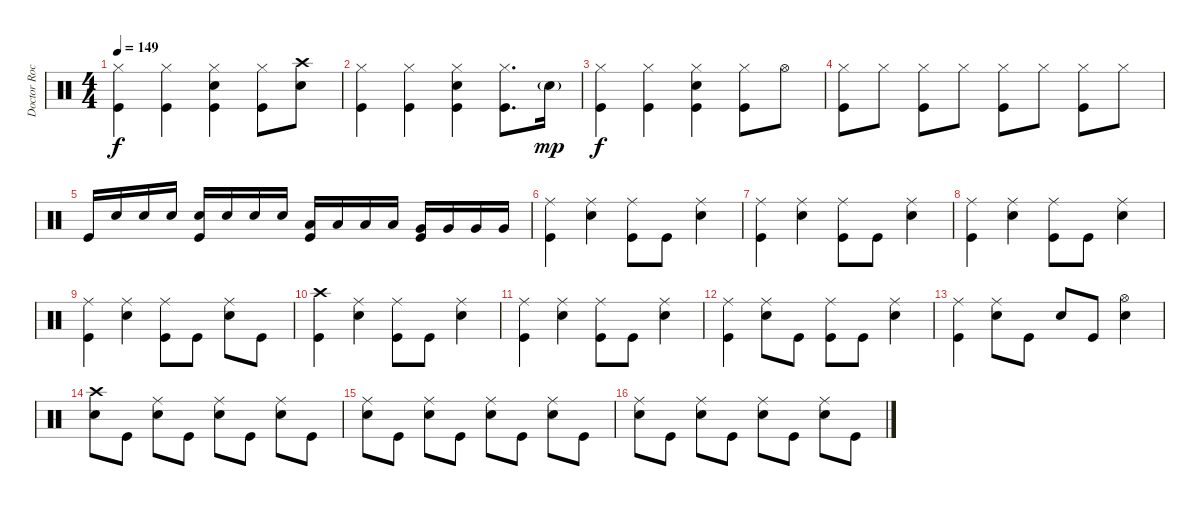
\track ("Doctor Rock" "Doctor Roc") {instrument percussion}
\staff {score}
\articulation defaults
\ts (4 4)
\tempo 149
\clef neutral
\ks c
("Hi-Hat (closed)" "Kick (hit)").4{dy f} ("Hi-Hat (closed)" "Kick (hit)").4 ("Hi-Hat (closed)" "Snare (hit) 2" "Kick (hit)").4 ("Hi-Hat (closed)" "Kick (hit)").8 ("Crash high (hit)" "Snare (hit) 2").8 |
("Hi-Hat (closed)" "Kick (hit)").4 ("Hi-Hat (closed)" "Kick (hit)").4 ("Hi-Hat (closed)" "Snare (hit) 2" "Kick (hit)").4 ("Hi-Hat (closed)" "Kick (hit)").8{d} "Snare (hit) 2"{g}.16{dy mp} |
("Hi-Hat (closed)" "Kick (hit)").4{dy f} ("Hi-Hat (closed)" "Kick (hit)").4 ("Hi-Hat (closed)" "Snare (hit) 2" "Kick (hit)").4 ("Hi-Hat (closed)" "Kick (hit)").8 "Hi-Hat (open)".8 |
("Hi-Hat (closed)" "Kick (hit)").8 "Hi-Hat (closed)".8 ("Hi-Hat (closed)" "Kick (hit)").8 "Hi-Hat (closed)".8 ("Hi-Hat (closed)" "Kick (hit)").8 "Hi-Hat (closed)".8 ("Hi-Hat (closed)" "Kick (hit)").8 "Hi-Hat (closed)".8 |
"Kick (hit)".16 "Snare (hit) 2".16 "Snare (hit) 2".16 "Snare (hit) 2".16 ("Snare (hit) 2" "Kick (hit)").16 "Snare (hit) 2".16 "Snare (hit) 2".16 "Snare (hit) 2".16 ("Kick (hit)" "Low Tom (hit)").16 "Low Tom (hit)".16 "Low Tom (hit)".16 "Low Tom (hit)".16 ("Kick (hit)" "Very Low Tom (hit)").16 "Very Low Tom (hit)".16 "Very Low Tom (hit)".16 "Very Low Tom (hit)".16 |
("Ride (middle)" "Kick (hit)").4 ("Ride (middle)" "Snare (hit) 2").4 ("Ride (middle)" "Kick (hit)").8 "Kick (hit)".8 ("Ride (middle)" "Snare (hit) 2").4 |
("Ride (middle)" "Kick (hit)").4 ("Ride (middle)" "Snare (hit) 2").4 ("Ride (middle)" "Kick (hit)").8 "Kick (hit)".8 ("Ride (middle)" "Snare (hit) 2").4 |
("Ride (middle)" "Kick (hit)").4 ("Ride (middle)" "Snare (hit) 2").4 ("Ride (middle)" "Kick (hit)").8 "Kick (hit)".8 ("Ride (middle)" "Snare (hit) 2").4 |
("Ride (middle)" "Kick (hit)").4 ("Ride (middle)" "Snare (hit) 2").4 ("Ride (middle)" "Kick (hit)").8 "Kick (hit)".8 ("Ride (middle)" "Snare (hit) 2").8 "Kick (hit)".8 |
("Crash high (hit)" "Kick (hit)").4 ("Ride (middle)" "Snare (hit) 2").4 ("Ride (middle)" "Kick (hit)").8 "Kick (hit)".8 ("Ride (middle)" "Snare (hit) 2").4 |
("Ride (middle)" "Kick (hit)").4 ("Ride (middle)" "Snare (hit) 2").4 ("Ride (middle)" "Kick (hit)").8 "Kick (hit)".8 ("Ride (middle)" "Snare (hit) 2").4 |
("Ride (middle)" "Kick (hit)").4 ("Ride (middle)" "Snare (hit) 2").8 "Kick (hit)".8 ("Ride (middle)" "Kick (hit)").8 "Kick (hit)".8 ("Ride (middle)" "Snare (hit) 2").4 |
("Ride (middle)" "Kick (hit)").4 ("Ride (middle)" "Snare (hit) 2").8 "Kick (hit)".8 "Snare (hit) 2".8 "Kick (hit)".8 ("Hi-Hat (open)" "Snare (hit) 2").4 |
("Crash high (hit)" "Snare (hit) 2").8 "Kick (hit)".8 ("Ride (middle)" "Snare (hit) 2").8 "Kick (hit)".8 ("Ride (middle)" "Snare (hit) 2").8 "Kick (hit)".8 ("Ride (middle)" "Snare (hit) 2").8 "Kick (hit)".8 |
("Ride (middle)" "Snare (hit) 2").8 "Kick (hit)".8 ("Ride (middle)" "Snare (hit) 2").8 "Kick (hit)".8 ("Ride (middle)" "Snare (hit) 2").8 "Kick (hit)".8 ("Ride (middle)" "Snare (hit) 2").8 "Kick (hit)".8 |
("Ride (middle)" "Snare (hit) 2").8 "Kick (hit)".8 ("Ride (middle)" "Snare (hit) 2").8 "Kick (hit)".8 ("Ride (middle)" "Snare (hit) 2").8 "Kick (hit)".8 ("Ride (middle)" "Snare (hit) 2").8 "Kick (hit)".8
